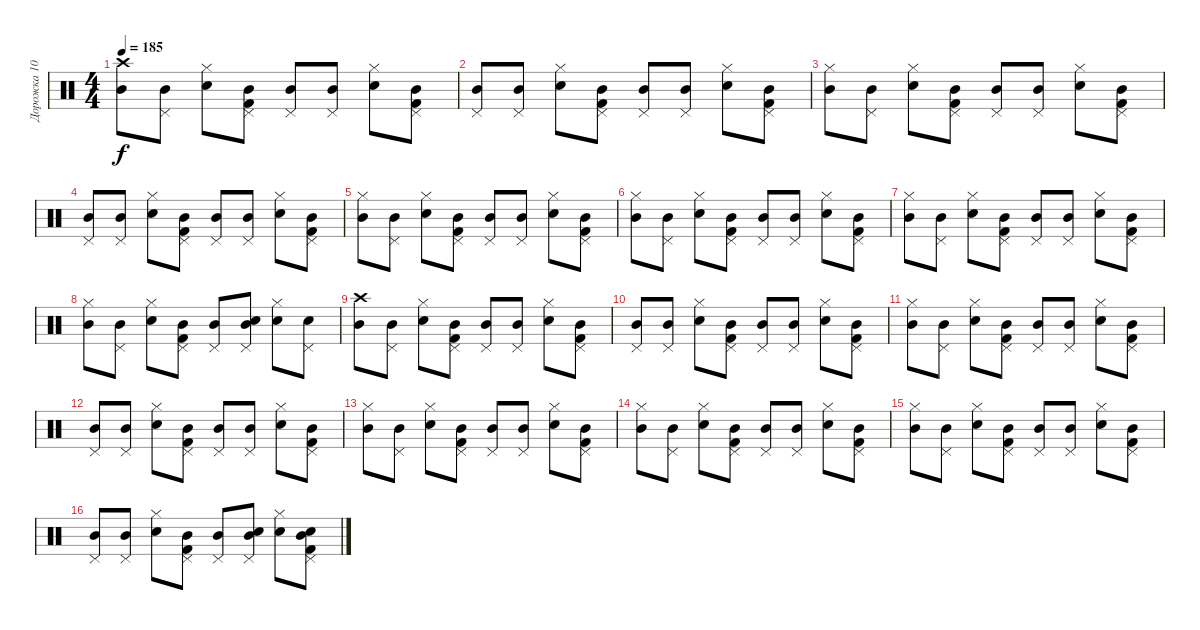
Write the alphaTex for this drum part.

\track ("Дорожка 10" "Дорожка 10") {instrument percussion}
\staff {score}
\articulation defaults
\ts (4 4)
\tempo 185
\clef neutral
\ks c
("Mid Tom (hit)" "Crash high (hit)").8{dy f} ("Mid Tom (hit)" "Pedal Hi-Hat (hit)").8 ("Snare (hit) 2" "Hi-Hat (closed)").8 ("Kick (hit) 2" "Mid Tom (hit)" "Pedal Hi-Hat (hit)").8 ("Mid Tom (hit)" "Pedal Hi-Hat (hit)").8 ("Mid Tom (hit)" "Pedal Hi-Hat (hit)").8 ("Snare (hit) 2" "Hi-Hat (closed)").8 ("Kick (hit) 2" "Mid Tom (hit)" "Pedal Hi-Hat (hit)").8 |
("Mid Tom (hit)" "Pedal Hi-Hat (hit)").8 ("Mid Tom (hit)" "Pedal Hi-Hat (hit)").8 ("Snare (hit) 2" "Hi-Hat (closed)").8 ("Kick (hit) 2" "Mid Tom (hit)" "Pedal Hi-Hat (hit)").8 ("Mid Tom (hit)" "Pedal Hi-Hat (hit)").8 ("Mid Tom (hit)" "Pedal Hi-Hat (hit)").8 ("Snare (hit) 2" "Hi-Hat (closed)").8 ("Kick (hit) 2" "Mid Tom (hit)" "Pedal Hi-Hat (hit)").8 |
("Mid Tom (hit)" "Hi-Hat (closed)").8 ("Mid Tom (hit)" "Pedal Hi-Hat (hit)").8 ("Snare (hit) 2" "Hi-Hat (closed)").8 ("Kick (hit) 2" "Mid Tom (hit)" "Pedal Hi-Hat (hit)").8 ("Mid Tom (hit)" "Pedal Hi-Hat (hit)").8 ("Mid Tom (hit)" "Pedal Hi-Hat (hit)").8 ("Snare (hit) 2" "Hi-Hat (closed)").8 ("Kick (hit) 2" "Mid Tom (hit)" "Pedal Hi-Hat (hit)").8 |
("Mid Tom (hit)" "Pedal Hi-Hat (hit)").8 ("Mid Tom (hit)" "Pedal Hi-Hat (hit)").8 ("Snare (hit) 2" "Hi-Hat (closed)").8 ("Kick (hit) 2" "Mid Tom (hit)" "Pedal Hi-Hat (hit)").8 ("Mid Tom (hit)" "Pedal Hi-Hat (hit)").8 ("Mid Tom (hit)" "Pedal Hi-Hat (hit)").8 ("Snare (hit) 2" "Hi-Hat (closed)").8 ("Kick (hit) 2" "Mid Tom (hit)" "Pedal Hi-Hat (hit)").8 |
("Mid Tom (hit)" "Hi-Hat (closed)").8 ("Mid Tom (hit)" "Pedal Hi-Hat (hit)").8 ("Snare (hit) 2" "Hi-Hat (closed)").8 ("Kick (hit) 2" "Mid Tom (hit)" "Pedal Hi-Hat (hit)").8 ("Mid Tom (hit)" "Pedal Hi-Hat (hit)").8 ("Mid Tom (hit)" "Pedal Hi-Hat (hit)").8 ("Snare (hit) 2" "Hi-Hat (closed)").8 ("Kick (hit) 2" "Mid Tom (hit)" "Pedal Hi-Hat (hit)").8 |
("Mid Tom (hit)" "Hi-Hat (closed)").8 ("Mid Tom (hit)" "Pedal Hi-Hat (hit)").8 ("Snare (hit) 2" "Hi-Hat (closed)").8 ("Kick (hit) 2" "Mid Tom (hit)" "Pedal Hi-Hat (hit)").8 ("Mid Tom (hit)" "Pedal Hi-Hat (hit)").8 ("Mid Tom (hit)" "Pedal Hi-Hat (hit)").8 ("Snare (hit) 2" "Hi-Hat (closed)").8 ("Kick (hit) 2" "Mid Tom (hit)" "Pedal Hi-Hat (hit)").8 |
("Mid Tom (hit)" "Hi-Hat (closed)").8 ("Mid Tom (hit)" "Pedal Hi-Hat (hit)").8 ("Snare (hit) 2" "Hi-Hat (closed)").8 ("Kick (hit) 2" "Mid Tom (hit)" "Pedal Hi-Hat (hit)").8 ("Mid Tom (hit)" "Pedal Hi-Hat (hit)").8 ("Mid Tom (hit)" "Pedal Hi-Hat (hit)").8 ("Snare (hit) 2" "Hi-Hat (closed)").8 ("Kick (hit) 2" "Mid Tom (hit)" "Pedal Hi-Hat (hit)").8 |
("Mid Tom (hit)" "Hi-Hat (closed)").8 ("Mid Tom (hit)" "Pedal Hi-Hat (hit)").8 ("Snare (hit) 2" "Hi-Hat (closed)").8 ("Kick (hit) 2" "Mid Tom (hit)" "Pedal Hi-Hat (hit)").8 ("Mid Tom (hit)" "Pedal Hi-Hat (hit)").8 ("Snare (hit) 2" "Mid Tom (hit)" "Pedal Hi-Hat (hit)").8 ("Snare (hit) 2" "Hi-Hat (closed)").8 ("Snare (hit) 2" "Pedal Hi-Hat (hit)").8 |
("Mid Tom (hit)" "Crash high (hit)").8 ("Mid Tom (hit)" "Pedal Hi-Hat (hit)").8 ("Snare (hit) 2" "Hi-Hat (closed)").8 ("Kick (hit) 2" "Mid Tom (hit)" "Pedal Hi-Hat (hit)").8 ("Mid Tom (hit)" "Pedal Hi-Hat (hit)").8 ("Mid Tom (hit)" "Pedal Hi-Hat (hit)").8 ("Snare (hit) 2" "Hi-Hat (closed)").8 ("Kick (hit) 2" "Mid Tom (hit)" "Pedal Hi-Hat (hit)").8 |
("Mid Tom (hit)" "Pedal Hi-Hat (hit)").8 ("Mid Tom (hit)" "Pedal Hi-Hat (hit)").8 ("Snare (hit) 2" "Hi-Hat (closed)").8 ("Kick (hit) 2" "Mid Tom (hit)" "Pedal Hi-Hat (hit)").8 ("Mid Tom (hit)" "Pedal Hi-Hat (hit)").8 ("Mid Tom (hit)" "Pedal Hi-Hat (hit)").8 ("Snare (hit) 2" "Hi-Hat (closed)").8 ("Kick (hit) 2" "Mid Tom (hit)" "Pedal Hi-Hat (hit)").8 |
("Mid Tom (hit)" "Hi-Hat (closed)").8 ("Mid Tom (hit)" "Pedal Hi-Hat (hit)").8 ("Snare (hit) 2" "Hi-Hat (closed)").8 ("Kick (hit) 2" "Mid Tom (hit)" "Pedal Hi-Hat (hit)").8 ("Mid Tom (hit)" "Pedal Hi-Hat (hit)").8 ("Mid Tom (hit)" "Pedal Hi-Hat (hit)").8 ("Snare (hit) 2" "Hi-Hat (closed)").8 ("Kick (hit) 2" "Mid Tom (hit)" "Pedal Hi-Hat (hit)").8 |
("Mid Tom (hit)" "Pedal Hi-Hat (hit)").8 ("Mid Tom (hit)" "Pedal Hi-Hat (hit)").8 ("Snare (hit) 2" "Hi-Hat (closed)").8 ("Kick (hit) 2" "Mid Tom (hit)" "Pedal Hi-Hat (hit)").8 ("Mid Tom (hit)" "Pedal Hi-Hat (hit)").8 ("Mid Tom (hit)" "Pedal Hi-Hat (hit)").8 ("Snare (hit) 2" "Hi-Hat (closed)").8 ("Kick (hit) 2" "Mid Tom (hit)" "Pedal Hi-Hat (hit)").8 |
("Mid Tom (hit)" "Hi-Hat (closed)").8 ("Mid Tom (hit)" "Pedal Hi-Hat (hit)").8 ("Snare (hit) 2" "Hi-Hat (closed)").8 ("Kick (hit) 2" "Mid Tom (hit)" "Pedal Hi-Hat (hit)").8 ("Mid Tom (hit)" "Pedal Hi-Hat (hit)").8 ("Mid Tom (hit)" "Pedal Hi-Hat (hit)").8 ("Snare (hit) 2" "Hi-Hat (closed)").8 ("Kick (hit) 2" "Mid Tom (hit)" "Pedal Hi-Hat (hit)").8 |
("Mid Tom (hit)" "Hi-Hat (closed)").8 ("Mid Tom (hit)" "Pedal Hi-Hat (hit)").8 ("Snare (hit) 2" "Hi-Hat (closed)").8 ("Kick (hit) 2" "Mid Tom (hit)" "Pedal Hi-Hat (hit)").8 ("Mid Tom (hit)" "Pedal Hi-Hat (hit)").8 ("Mid Tom (hit)" "Pedal Hi-Hat (hit)").8 ("Snare (hit) 2" "Hi-Hat (closed)").8 ("Kick (hit) 2" "Mid Tom (hit)" "Pedal Hi-Hat (hit)").8 |
("Mid Tom (hit)" "Hi-Hat (closed)").8 ("Mid Tom (hit)" "Pedal Hi-Hat (hit)").8 ("Snare (hit) 2" "Hi-Hat (closed)").8 ("Kick (hit) 2" "Mid Tom (hit)" "Pedal Hi-Hat (hit)").8 ("Mid Tom (hit)" "Pedal Hi-Hat (hit)").8 ("Mid Tom (hit)" "Pedal Hi-Hat (hit)").8 ("Snare (hit) 2" "Hi-Hat (closed)").8 ("Kick (hit) 2" "Mid Tom (hit)" "Pedal Hi-Hat (hit)").8 |
("Mid Tom (hit)" "Pedal Hi-Hat (hit)").8 ("Mid Tom (hit)" "Pedal Hi-Hat (hit)").8 ("Snare (hit) 2" "Hi-Hat (closed)").8 ("Kick (hit) 2" "Mid Tom (hit)" "Pedal Hi-Hat (hit)").8 ("Mid Tom (hit)" "Pedal Hi-Hat (hit)").8 ("Snare (hit) 2" "Mid Tom (hit)" "Pedal Hi-Hat (hit)").8 ("Snare (hit) 2" "Hi-Hat (closed)").8 ("Kick (hit) 2" "Snare (hit) 2" "Mid Tom (hit)" "Pedal Hi-Hat (hit)").8
